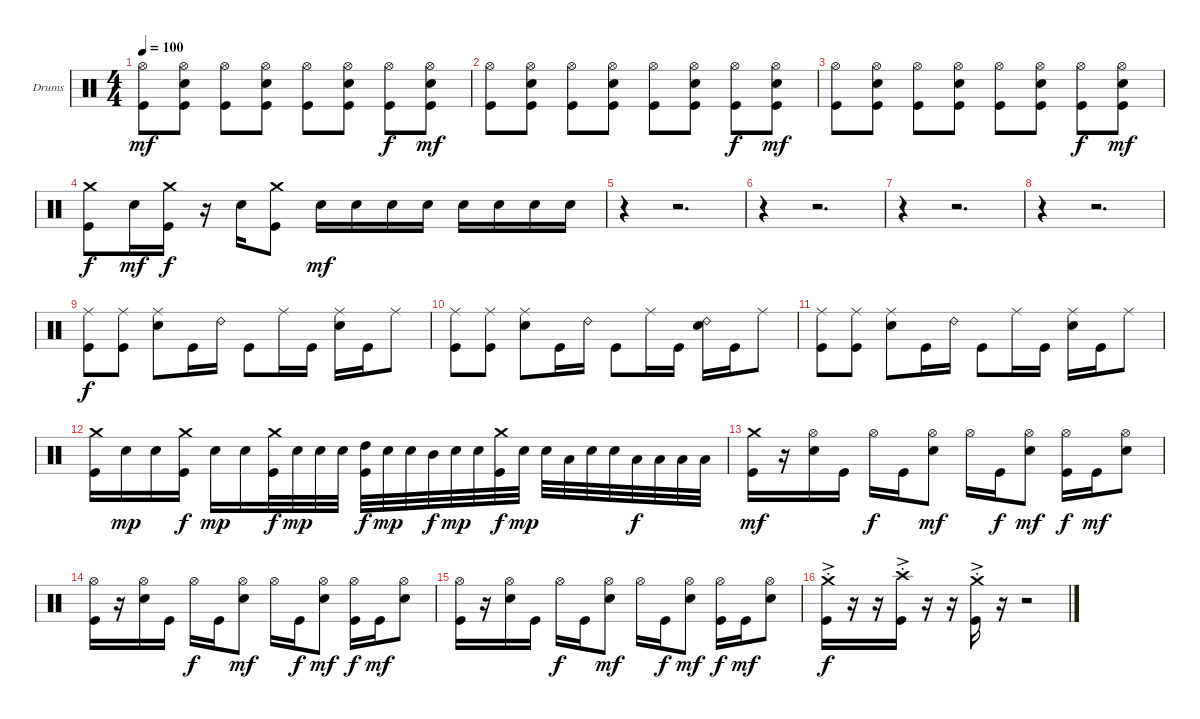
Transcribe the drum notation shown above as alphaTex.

\bracketExtendMode groupsimilarinstruments
\firstSystemTrackNameOrientation horizontal
\otherSystemsTrackNameOrientation horizontal
\track ("Drumkit" "Drums") {instrument percussion}
\staff {score}
\articulation defaults
\ts (4 4)
\tempo 100
\clef neutral
\ks c
("Hi-Hat (open)" "Kick (hit)").8{dy mf} ("Hi-Hat (open)" "Snare (hit) 2" "Kick (hit)").8 ("Hi-Hat (open)" "Kick (hit)").8 ("Hi-Hat (open)" "Snare (hit) 2" "Kick (hit)").8 ("Hi-Hat (open)" "Kick (hit)").8 ("Hi-Hat (open)" "Snare (hit) 2" "Kick (hit)").8 ("Hi-Hat (open)" "Kick (hit)").8{dy f} ("Hi-Hat (open)" "Snare (hit) 2" "Kick (hit)").8{dy mf} |
("Hi-Hat (open)" "Kick (hit)").8 ("Hi-Hat (open)" "Snare (hit) 2" "Kick (hit)").8 ("Hi-Hat (open)" "Kick (hit)").8 ("Hi-Hat (open)" "Snare (hit) 2" "Kick (hit)").8 ("Hi-Hat (open)" "Kick (hit)").8 ("Hi-Hat (open)" "Snare (hit) 2" "Kick (hit)").8 ("Hi-Hat (open)" "Kick (hit)").8{dy f} ("Hi-Hat (open)" "Snare (hit) 2" "Kick (hit)").8{dy mf} |
("Hi-Hat (open)" "Kick (hit)").8 ("Hi-Hat (open)" "Snare (hit) 2" "Kick (hit)").8 ("Hi-Hat (open)" "Kick (hit)").8 ("Hi-Hat (open)" "Snare (hit) 2" "Kick (hit)").8 ("Hi-Hat (open)" "Kick (hit)").8 ("Hi-Hat (open)" "Snare (hit) 2" "Kick (hit)").8 ("Hi-Hat (open)" "Kick (hit)").8{dy f} ("Hi-Hat (open)" "Snare (hit) 2" "Kick (hit)").8{dy mf} |
("Crash medium (hit)" "Kick (hit)").8{dy f} "Snare (hit) 2".16{dy mf} ("Crash medium (hit)" "Kick (hit)").16{dy f} r.16 "Snare (hit) 2".16 ("Crash medium (hit)" "Kick (hit)").8 "Snare (hit) 2".16{dy mf} "Snare (hit) 2".16 "Snare (hit) 2".16 "Snare (hit) 2".16 "Snare (hit) 2".16 "Snare (hit) 2".16 "Snare (hit) 2".16 "Snare (hit) 2".16 |
r.4 r.2{d} |
r.4 r.2{d} |
r.4 r.2{d} |
r.4 r.2{d} |
("Ride (middle)" "Kick (hit)").8{dy f} ("Ride (middle)" "Kick (hit)").8 ("Ride (middle)" "Snare (hit) 2").8 "Kick (hit)".16 "Ride (bell) 2".16 "Kick (hit)".8 "Ride (middle)".16 "Kick (hit)".16 ("Ride (middle)" "Snare (hit) 2").16 "Kick (hit)".16 "Ride (middle)".8 |
("Ride (middle)" "Kick (hit)").8 ("Ride (middle)" "Kick (hit)").8 ("Ride (middle)" "Snare (hit) 2").8 "Kick (hit)".16 "Ride (bell) 2".16 "Kick (hit)".8 "Ride (middle)".16 "Kick (hit)".16 ("Ride (bell) 2" "Snare (hit) 2").16 "Kick (hit)".16 "Ride (middle)".8 |
("Ride (middle)" "Kick (hit)").8 ("Ride (middle)" "Kick (hit)").8 ("Ride (middle)" "Snare (hit) 2").8 "Kick (hit)".16 "Ride (bell) 2".16 "Kick (hit)".8 "Ride (middle)".16 "Kick (hit)".16 ("Ride (middle)" "Snare (hit) 2").16 "Kick (hit)".16 "Ride (middle)".8 |
("Crash medium (hit)" "Kick (hit)").16 "Snare (hit) 2".16{dy mp} "Snare (hit) 2".16 ("Crash medium (hit)" "Kick (hit)").16{dy f} "Snare (hit) 2".16{dy mp} "Snare (hit) 2".16 ("Crash medium (hit)" "Kick (hit)").32{dy f} "Snare (hit) 2".32{dy mp} "Snare (hit) 2".32 "Snare (hit) 2".32 ("High Tom (hit)" "Kick (hit)").32{dy f} "Snare (hit) 2".32{dy mp} "Snare (hit) 2".32 "Mid Tom (hit)".32{dy f} "Snare (hit) 2".32{dy mp} "Snare (hit) 2".32 ("Crash medium (hit)" "Kick (hit)").32{dy f} "Snare (hit) 2".32{dy mp} "Snare (hit) 2".32 "Low Tom (hit)".32 "Snare (hit) 2".32 "Snare (hit) 2".32 "Low Tom (hit)".32{dy f} "Low Tom (hit)".32 "Low Tom (hit)".32 "Low Tom (hit)".32 |
("Crash medium (hit)" "Kick (hit)").16{dy mf} r.16 ("Hi-Hat (open)" "Snare (hit) 2").16 "Kick (hit)".16 "Hi-Hat (open)".16{dy f} "Kick (hit)".16 ("Hi-Hat (open)" "Snare (hit) 2").8{dy mf} "Hi-Hat (open)".16 "Kick (hit)".16{dy f} ("Hi-Hat (open)" "Snare (hit) 2").8{dy mf} ("Hi-Hat (open)" "Kick (hit)").16{dy f} "Kick (hit)".16{dy mf} ("Hi-Hat (open)" "Snare (hit) 2").8 |
("Hi-Hat (open)" "Kick (hit)").16 r.16 ("Hi-Hat (open)" "Snare (hit) 2").16 "Kick (hit)".16 "Hi-Hat (open)".16{dy f} "Kick (hit)".16 ("Hi-Hat (open)" "Snare (hit) 2").8{dy mf} "Hi-Hat (open)".16 "Kick (hit)".16{dy f} ("Hi-Hat (open)" "Snare (hit) 2").8{dy mf} ("Hi-Hat (open)" "Kick (hit)").16{dy f} "Kick (hit)".16{dy mf} ("Hi-Hat (open)" "Snare (hit) 2").8 |
("Hi-Hat (open)" "Kick (hit)").16 r.16 ("Hi-Hat (open)" "Snare (hit) 2").16 "Kick (hit)".16 "Hi-Hat (open)".16{dy f} "Kick (hit)".16 ("Hi-Hat (open)" "Snare (hit) 2").8{dy mf} "Hi-Hat (open)".16 "Kick (hit)".16{dy f} ("Hi-Hat (open)" "Snare (hit) 2").8{dy mf} ("Hi-Hat (open)" "Kick (hit)").16{dy f} "Kick (hit)".16{dy mf} ("Hi-Hat (open)" "Snare (hit) 2").8 |
("Crash medium (hit)"{ac st} "Kick (hit)").16{dy f} r.16 r.16 ("Crash high (hit)"{ac st} "Kick (hit)").16 r.16 r.16 ("Crash medium (hit)"{ac st} "Kick (hit)").16 r.16 r.2
